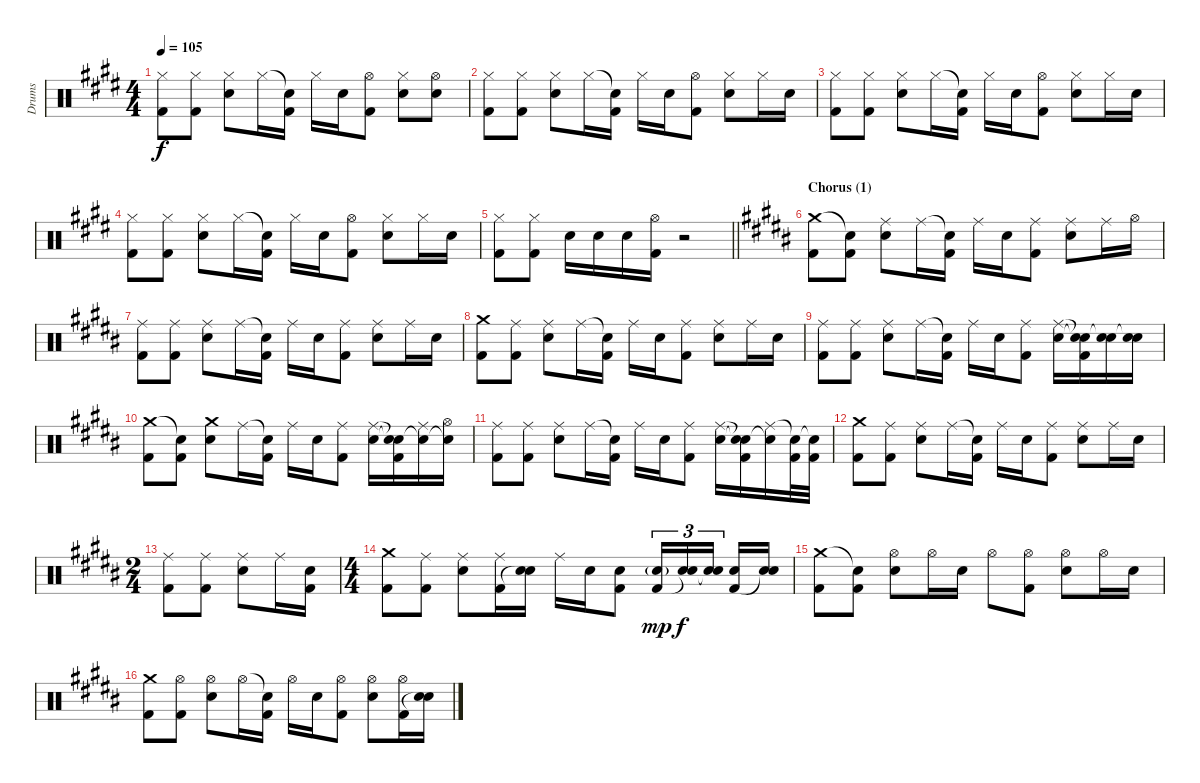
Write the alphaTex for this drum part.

\track ("Drums" "Drums") {instrument percussion}
\staff {score}
\articulation defaults
\ts (4 4)
\tempo 105
\clef neutral
\ks e
("Hi-Hat (closed)" "Kick (hit) 2").8{dy f} ("Hi-Hat (closed)" "Kick (hit) 2").8 ("Hi-Hat (closed)" "Electric Snare (hit)").8 "Hi-Hat (closed)".16 ("Snare (hit)"{t} "Kick (hit) 2").16 "Hi-Hat (closed)".16 "Electric Snare (hit)".16 ("Hi-Hat (open)" "Kick (hit) 2").8 ("Hi-Hat (closed)" "Electric Snare (hit)").8 ("Hi-Hat (open)" "Electric Snare (hit)").8 |
("Hi-Hat (closed)" "Kick (hit) 2").8 ("Hi-Hat (closed)" "Kick (hit) 2").8 ("Hi-Hat (closed)" "Electric Snare (hit)").8 "Hi-Hat (closed)".16 ("Snare (hit)"{t} "Kick (hit) 2").16 "Hi-Hat (closed)".16 "Electric Snare (hit)".16 ("Hi-Hat (open)" "Kick (hit) 2").8 ("Hi-Hat (closed)" "Electric Snare (hit)").8 "Hi-Hat (closed)".16 "Electric Snare (hit)".16 |
("Hi-Hat (closed)" "Kick (hit) 2").8 ("Hi-Hat (closed)" "Kick (hit) 2").8 ("Hi-Hat (closed)" "Electric Snare (hit)").8 "Hi-Hat (closed)".16 ("Snare (hit)"{t} "Kick (hit) 2").16 "Hi-Hat (closed)".16 "Electric Snare (hit)".16 ("Hi-Hat (open)" "Kick (hit) 2").8 ("Hi-Hat (closed)" "Electric Snare (hit)").8 "Hi-Hat (closed)".16 "Electric Snare (hit)".16 |
("Hi-Hat (closed)" "Kick (hit) 2").8 ("Hi-Hat (closed)" "Kick (hit) 2").8 ("Hi-Hat (closed)" "Electric Snare (hit)").8 "Hi-Hat (closed)".16 ("Snare (hit)"{t} "Kick (hit) 2").16 "Hi-Hat (closed)".16 "Electric Snare (hit)".16 ("Hi-Hat (open)" "Kick (hit) 2").8 ("Hi-Hat (closed)" "Electric Snare (hit)").8 "Hi-Hat (closed)".16 "Electric Snare (hit)".16 |
\barLineRight lightlight
("Hi-Hat (closed)" "Kick (hit) 2").8 ("Hi-Hat (closed)" "Kick (hit) 2").8 "Electric Snare (hit)".16 "Electric Snare (hit)".16 "Electric Snare (hit)".16 ("Hi-Hat (open)" "Kick (hit) 2").16 r.2 |
\section ("" "Chorus (1)")
\ks g#minor
("Crash medium (hit)" "Kick (hit) 2").8 ("Snare (hit)"{t} "Kick (hit) 2").8 ("Ride (middle)" "Electric Snare (hit)").8 "Ride (middle)".16 ("Snare (hit)"{t} "Kick (hit) 2").16 "Ride (middle)".16 "Electric Snare (hit)".16 ("Ride (middle)" "Kick (hit) 2").8 ("Ride (middle)" "Electric Snare (hit)").8 "Ride (middle)".16 "Hi-Hat (open)".16 |
("Ride (middle)" "Kick (hit) 2").8 ("Ride (middle)" "Kick (hit) 2").8 ("Ride (middle)" "Electric Snare (hit)").8 "Ride (middle)".16 ("Snare (hit)"{t} "Kick (hit) 2").16 "Ride (middle)".16 "Electric Snare (hit)".16 ("Ride (middle)" "Kick (hit) 2").8 ("Ride (middle)" "Electric Snare (hit)").8 "Ride (middle)".16 "Electric Snare (hit)".16 |
("Crash medium (hit)" "Kick (hit) 2").8 ("Ride (middle)" "Kick (hit) 2").8 ("Ride (middle)" "Electric Snare (hit)").8 "Ride (middle)".16 ("Snare (hit)"{t} "Kick (hit) 2").16 "Ride (middle)".16 "Electric Snare (hit)".16 ("Ride (middle)" "Kick (hit) 2").8 ("Ride (middle)" "Electric Snare (hit)").8 "Ride (middle)".16 "Electric Snare (hit)".16 |
("Ride (middle)" "Kick (hit) 2").8 ("Ride (middle)" "Kick (hit) 2").8 ("Ride (middle)" "Electric Snare (hit)").8 "Ride (middle)".16 ("Snare (hit)"{t} "Kick (hit) 2").16 "Ride (middle)".16 "Electric Snare (hit)".16 ("Ride (middle)" "Kick (hit) 2").8 ("Ride (middle)" "Electric Snare (hit)").16 ("Snare (hit)"{t} "Snare (hit)"{t} "Kick (hit) 2").16 ("Electric Snare (hit)" "Snare (hit)"{t}).16 ("Electric Snare (hit)" "Snare (hit)"{t}).16 |
("Crash medium (hit)" "Kick (hit) 2").8 ("Snare (hit)"{t} "Kick (hit) 2").8 ("Crash medium (hit)" "Electric Snare (hit)").8 "Ride (middle)".16 ("Snare (hit)"{t} "Kick (hit) 2").16 "Ride (middle)".16 "Electric Snare (hit)".16 ("Ride (middle)" "Kick (hit) 2").8 ("Ride (middle)" "Electric Snare (hit)").16 ("Snare (hit)"{t} "Snare (hit)"{t} "Kick (hit) 2").16 ("Ride (middle)" "Snare (hit)"{t}).16 ("Hi-Hat (open)" "Snare (hit)"{t}).16 |
("Ride (middle)" "Kick (hit) 2").8 ("Ride (middle)" "Kick (hit) 2").8 ("Ride (middle)" "Electric Snare (hit)").8 "Ride (middle)".16 ("Snare (hit)"{t} "Kick (hit) 2").16 "Ride (middle)".16 "Electric Snare (hit)".16 ("Ride (middle)" "Kick (hit) 2").8 ("Ride (middle)" "Electric Snare (hit)").16 ("Snare (hit)"{t} "Snare (hit)"{t} "Kick (hit) 2").16 ("Ride (middle)" "Snare (hit)"{t}).16 ("Snare (hit)"{t} "Kick (hit) 2").32 ("Snare (hit)"{t} "Kick (hit) 2").32 |
("Crash medium (hit)" "Kick (hit) 2").8 ("Ride (middle)" "Kick (hit) 2").8 ("Ride (middle)" "Electric Snare (hit)").8 "Ride (middle)".16 ("Snare (hit)"{t} "Kick (hit) 2").16 "Ride (middle)".16 "Electric Snare (hit)".16 ("Ride (middle)" "Kick (hit) 2").8 ("Ride (middle)" "Electric Snare (hit)").8 "Ride (middle)".16 "Electric Snare (hit)".16 |
\ts (2 4)
("Ride (middle)" "Kick (hit) 2").8 ("Ride (middle)" "Kick (hit) 2").8 ("Ride (middle)" "Electric Snare (hit)").8 "Ride (middle)".16 ("Electric Snare (hit)" "Kick (hit) 2").16 |
\ts (4 4)
("Crash medium (hit)" "Kick (hit) 2").8 ("Ride (middle)" "Kick (hit) 2").8 ("Ride (middle)" "Electric Snare (hit)").8 ("Ride (middle)" "Kick (hit) 2").16 ("Electric Snare (hit)" "Snare (hit)"{t}).16 "Ride (middle)".16 "Electric Snare (hit)".16 ("Electric Snare (hit)" "Kick (hit) 2").8 ("Electric Snare (hit)"{g} "Kick (hit) 2").16{tu (3 2) dy mp} ("Electric Snare (hit)" "Snare (hit)"{t}).16{tu (3 2) dy f} ("Electric Snare (hit)" "Snare (hit)"{t}).16{tu (3 2)} ("Electric Snare (hit)" "Kick (hit) 2").16 ("Electric Snare (hit)" "Snare (hit)"{t}).16 |
("Crash medium (hit)" "Kick (hit) 2").8 ("Snare (hit)"{t} "Kick (hit) 2").8 ("Hi-Hat (open)" "Electric Snare (hit)").8 "Hi-Hat (open)".16 "Electric Snare (hit)".16 "Hi-Hat (open)".8 ("Hi-Hat (open)" "Kick (hit) 2").8 ("Hi-Hat (open)" "Electric Snare (hit)").8 "Hi-Hat (open)".16 "Electric Snare (hit)".16 |
("Crash medium (hit)" "Kick (hit) 2").8 ("Hi-Hat (open)" "Kick (hit) 2").8 ("Hi-Hat (open)" "Electric Snare (hit)").8 "Hi-Hat (open)".16 ("Snare (hit)"{t} "Kick (hit) 2").16 "Hi-Hat (open)".16 "Electric Snare (hit)".16 ("Hi-Hat (open)" "Kick (hit) 2").8 ("Hi-Hat (open)" "Electric Snare (hit)").8 ("Hi-Hat (open)" "Kick (hit) 2").16 ("Electric Snare (hit)" "Snare (hit)"{t}).16
